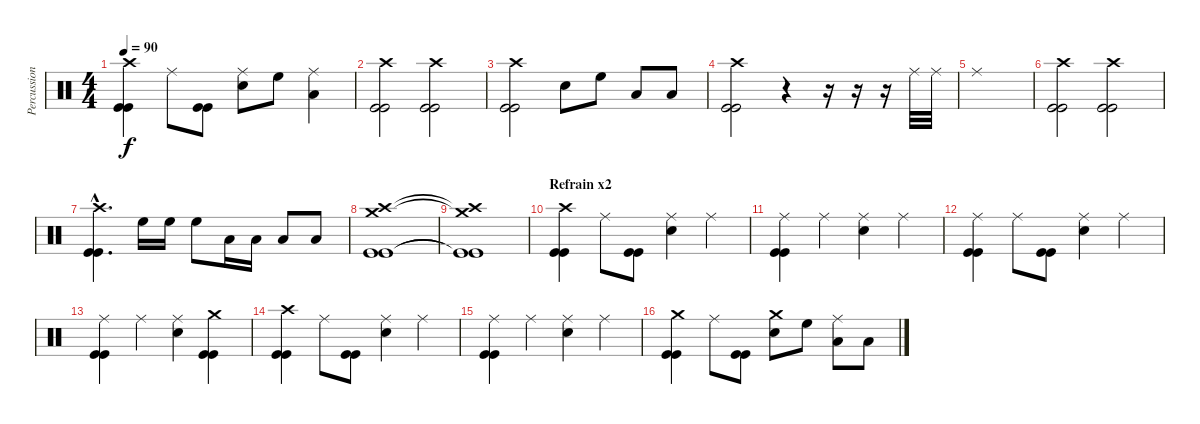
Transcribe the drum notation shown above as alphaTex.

\track ("Percussions" "Percussion") {instrument percussion}
\staff {score}
\articulation defaults
\ts (4 4)
\tempo 90
\clef neutral
\ks c
("Crash high (hit)" "Kick (hit)" "Kick (hit)").4{dy f} "Ride (middle)".8 ("Kick (hit)" "Kick (hit)").8 ("Ride (middle)" "Snare (hit) 2").8 "High Floor Tom (hit)".8 ("Ride (middle)" "Low Tom (hit)").4 |
("Crash high (hit)" "Kick (hit)" "Kick (hit)").2 ("Crash high (hit)" "Kick (hit)" "Kick (hit)").2 |
("Crash high (hit)" "Kick (hit)" "Kick (hit)").2 "Snare (hit) 2".8 "High Floor Tom (hit)".8 "Low Tom (hit)".8 "Low Floor Tom (hit)".8 |
("Crash high (hit)" "Kick (hit)" "Kick (hit)").2 r.4 r.16 r.16 r.16 "Ride (middle)".32 "Ride (middle)".32 |
"Ride (middle)".1 |
("Crash high (hit)" "Kick (hit)" "Kick (hit)").2 ("Crash high (hit)" "Kick (hit)" "Kick (hit)").2 |
("Crash high (hit)"{hac} "Kick (hit)"{hac} "Kick (hit)"{hac}).4{d} "High Floor Tom (hit)".16 "High Floor Tom (hit)".16 "High Floor Tom (hit)".8 "Low Tom (hit)".16 "Low Tom (hit)".16 "Low Tom (hit)".8 "Low Floor Tom (hit)".8 |
("Crash high (hit)" "Crash medium (hit)" "Kick (hit)" "Kick (hit)").1 |
("Crash high (hit)"{t} "Crash medium (hit)"{t} "Kick (hit)"{t} "Kick (hit)"{t}).1 |
\section ("" "Refrain x2")
("Crash high (hit)" "Kick (hit)" "Kick (hit)").4 "Ride (middle)".8 ("Kick (hit)" "Kick (hit)").8 ("Ride (middle)" "Electric Snare (hit)").4 "Ride (middle)".4 |
("Ride (middle)" "Kick (hit)" "Kick (hit)").4 "Ride (middle)".4 ("Ride (middle)" "Electric Snare (hit)").4 "Ride (middle)".4 |
("Ride (middle)" "Kick (hit)" "Kick (hit)").4 "Ride (middle)".8 ("Kick (hit)" "Kick (hit)").8 ("Ride (middle)" "Electric Snare (hit)").4 "Ride (middle)".4 |
("Ride (middle)" "Kick (hit)" "Kick (hit)").4 "Ride (middle)".4 ("Ride (middle)" "Electric Snare (hit)").4 ("Crash medium (hit)" "Kick (hit)" "Kick (hit)").4 |
("Crash high (hit)" "Kick (hit)" "Kick (hit)").4 "Ride (middle)".8 ("Kick (hit)" "Kick (hit)").8 ("Ride (middle)" "Electric Snare (hit)").4 "Ride (middle)".4 |
("Ride (middle)" "Kick (hit)" "Kick (hit)").4 "Ride (middle)".4 ("Ride (middle)" "Electric Snare (hit)").4 "Ride (middle)".4 |
("Crash medium (hit)" "Kick (hit)" "Kick (hit)").4 "Ride (middle)".8 ("Kick (hit)" "Kick (hit)").8 ("Crash medium (hit)" "Snare (hit) 2").8 "High Floor Tom (hit)".8 ("Ride (middle)" "Low Tom (hit)").8 "Low Floor Tom (hit)".8
